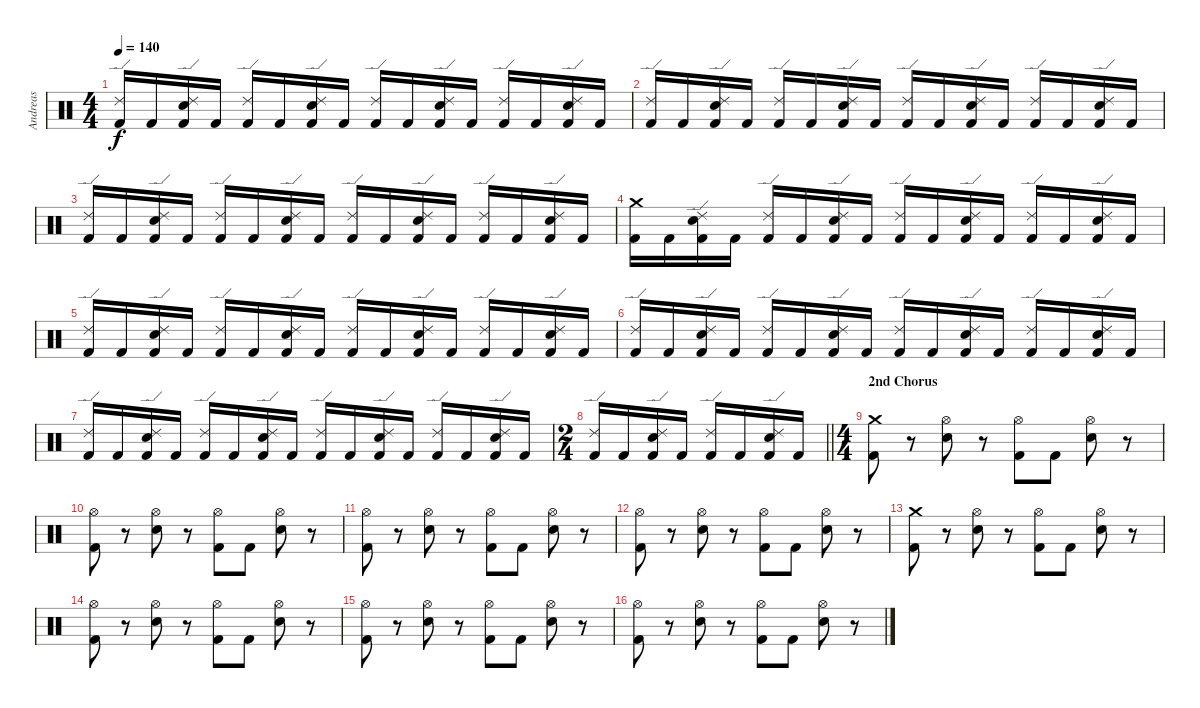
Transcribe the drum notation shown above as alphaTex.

\track ("Andreas" "Andreas") {instrument percussion}
\staff {score}
\articulation defaults
\ts (4 4)
\tempo 140
\clef neutral
\ks c
("Ride (edge) 2" "Kick (hit) 2").16{dy f} "Kick (hit) 2".16 ("Ride (edge) 2" "Electric Snare (hit)" "Kick (hit) 2").16 "Kick (hit) 2".16 ("Ride (edge) 2" "Kick (hit) 2").16 "Kick (hit) 2".16 ("Ride (edge) 2" "Electric Snare (hit)" "Kick (hit) 2").16 "Kick (hit) 2".16 ("Ride (edge) 2" "Kick (hit) 2").16 "Kick (hit) 2".16 ("Ride (edge) 2" "Electric Snare (hit)" "Kick (hit) 2").16 "Kick (hit) 2".16 ("Ride (edge) 2" "Kick (hit) 2").16 "Kick (hit) 2".16 ("Ride (edge) 2" "Electric Snare (hit)" "Kick (hit) 2").16 "Kick (hit) 2".16 |
("Ride (edge) 2" "Kick (hit) 2").16 "Kick (hit) 2".16 ("Ride (edge) 2" "Electric Snare (hit)" "Kick (hit) 2").16 "Kick (hit) 2".16 ("Ride (edge) 2" "Kick (hit) 2").16 "Kick (hit) 2".16 ("Ride (edge) 2" "Electric Snare (hit)" "Kick (hit) 2").16 "Kick (hit) 2".16 ("Ride (edge) 2" "Kick (hit) 2").16 "Kick (hit) 2".16 ("Ride (edge) 2" "Electric Snare (hit)" "Kick (hit) 2").16 "Kick (hit) 2".16 ("Ride (edge) 2" "Kick (hit) 2").16 "Kick (hit) 2".16 ("Ride (edge) 2" "Electric Snare (hit)" "Kick (hit) 2").16 "Kick (hit) 2".16 |
("Ride (edge) 2" "Kick (hit) 2").16 "Kick (hit) 2".16 ("Ride (edge) 2" "Electric Snare (hit)" "Kick (hit) 2").16 "Kick (hit) 2".16 ("Ride (edge) 2" "Kick (hit) 2").16 "Kick (hit) 2".16 ("Ride (edge) 2" "Electric Snare (hit)" "Kick (hit) 2").16 "Kick (hit) 2".16 ("Ride (edge) 2" "Kick (hit) 2").16 "Kick (hit) 2".16 ("Ride (edge) 2" "Electric Snare (hit)" "Kick (hit) 2").16 "Kick (hit) 2".16 ("Ride (edge) 2" "Kick (hit) 2").16 "Kick (hit) 2".16 ("Ride (edge) 2" "Electric Snare (hit)" "Kick (hit) 2").16 "Kick (hit) 2".16 |
("Crash medium (hit)" "Kick (hit) 2").16 "Kick (hit) 2".16 ("Ride (edge) 2" "Electric Snare (hit)" "Kick (hit) 2").16 "Kick (hit) 2".16 ("Ride (edge) 2" "Kick (hit) 2").16 "Kick (hit) 2".16 ("Ride (edge) 2" "Electric Snare (hit)" "Kick (hit) 2").16 "Kick (hit) 2".16 ("Ride (edge) 2" "Kick (hit) 2").16 "Kick (hit) 2".16 ("Ride (edge) 2" "Electric Snare (hit)" "Kick (hit) 2").16 "Kick (hit) 2".16 ("Ride (edge) 2" "Kick (hit) 2").16 "Kick (hit) 2".16 ("Ride (edge) 2" "Electric Snare (hit)" "Kick (hit) 2").16 "Kick (hit) 2".16 |
("Ride (edge) 2" "Kick (hit) 2").16 "Kick (hit) 2".16 ("Ride (edge) 2" "Electric Snare (hit)" "Kick (hit) 2").16 "Kick (hit) 2".16 ("Ride (edge) 2" "Kick (hit) 2").16 "Kick (hit) 2".16 ("Ride (edge) 2" "Electric Snare (hit)" "Kick (hit) 2").16 "Kick (hit) 2".16 ("Ride (edge) 2" "Kick (hit) 2").16 "Kick (hit) 2".16 ("Ride (edge) 2" "Electric Snare (hit)" "Kick (hit) 2").16 "Kick (hit) 2".16 ("Ride (edge) 2" "Kick (hit) 2").16 "Kick (hit) 2".16 ("Ride (edge) 2" "Electric Snare (hit)" "Kick (hit) 2").16 "Kick (hit) 2".16 |
("Ride (edge) 2" "Kick (hit) 2").16 "Kick (hit) 2".16 ("Ride (edge) 2" "Electric Snare (hit)" "Kick (hit) 2").16 "Kick (hit) 2".16 ("Ride (edge) 2" "Kick (hit) 2").16 "Kick (hit) 2".16 ("Ride (edge) 2" "Electric Snare (hit)" "Kick (hit) 2").16 "Kick (hit) 2".16 ("Ride (edge) 2" "Kick (hit) 2").16 "Kick (hit) 2".16 ("Ride (edge) 2" "Electric Snare (hit)" "Kick (hit) 2").16 "Kick (hit) 2".16 ("Ride (edge) 2" "Kick (hit) 2").16 "Kick (hit) 2".16 ("Ride (edge) 2" "Electric Snare (hit)" "Kick (hit) 2").16 "Kick (hit) 2".16 |
("Ride (edge) 2" "Kick (hit) 2").16 "Kick (hit) 2".16 ("Ride (edge) 2" "Electric Snare (hit)" "Kick (hit) 2").16 "Kick (hit) 2".16 ("Ride (edge) 2" "Kick (hit) 2").16 "Kick (hit) 2".16 ("Ride (edge) 2" "Electric Snare (hit)" "Kick (hit) 2").16 "Kick (hit) 2".16 ("Ride (edge) 2" "Kick (hit) 2").16 "Kick (hit) 2".16 ("Ride (edge) 2" "Electric Snare (hit)" "Kick (hit) 2").16 "Kick (hit) 2".16 ("Ride (edge) 2" "Kick (hit) 2").16 "Kick (hit) 2".16 ("Ride (edge) 2" "Electric Snare (hit)" "Kick (hit) 2").16 "Kick (hit) 2".16 |
\ts (2 4)
\barLineRight lightlight
("Ride (edge) 2" "Kick (hit) 2").16 "Kick (hit) 2".16 ("Ride (edge) 2" "Electric Snare (hit)" "Kick (hit) 2").16 "Kick (hit) 2".16 ("Ride (edge) 2" "Kick (hit) 2").16 "Kick (hit) 2".16 ("Ride (edge) 2" "Electric Snare (hit)" "Kick (hit) 2").16 "Kick (hit) 2".16 |
\ts (4 4)
\section ("" "2nd Chorus")
("Crash medium (hit)" "Kick (hit) 2").8 r.8 ("Hi-Hat (open)" "Electric Snare (hit)").8 r.8 ("Hi-Hat (open)" "Kick (hit) 2").8 "Kick (hit) 2".8 ("Hi-Hat (open)" "Electric Snare (hit)").8 r.8 |
("Hi-Hat (open)" "Kick (hit) 2").8 r.8 ("Hi-Hat (open)" "Electric Snare (hit)").8 r.8 ("Hi-Hat (open)" "Kick (hit) 2").8 "Kick (hit) 2".8 ("Hi-Hat (open)" "Electric Snare (hit)").8 r.8 |
("Hi-Hat (open)" "Kick (hit) 2").8 r.8 ("Hi-Hat (open)" "Electric Snare (hit)").8 r.8 ("Hi-Hat (open)" "Kick (hit) 2").8 "Kick (hit) 2".8 ("Hi-Hat (open)" "Electric Snare (hit)").8 r.8 |
("Hi-Hat (open)" "Kick (hit) 2").8 r.8 ("Hi-Hat (open)" "Electric Snare (hit)").8 r.8 ("Hi-Hat (open)" "Kick (hit) 2").8 "Kick (hit) 2".8 ("Hi-Hat (open)" "Electric Snare (hit)").8 r.8 |
("Crash medium (hit)" "Kick (hit) 2").8 r.8 ("Hi-Hat (open)" "Electric Snare (hit)").8 r.8 ("Hi-Hat (open)" "Kick (hit) 2").8 "Kick (hit) 2".8 ("Hi-Hat (open)" "Electric Snare (hit)").8 r.8 |
("Hi-Hat (open)" "Kick (hit) 2").8 r.8 ("Hi-Hat (open)" "Electric Snare (hit)").8 r.8 ("Hi-Hat (open)" "Kick (hit) 2").8 "Kick (hit) 2".8 ("Hi-Hat (open)" "Electric Snare (hit)").8 r.8 |
("Hi-Hat (open)" "Kick (hit) 2").8 r.8 ("Hi-Hat (open)" "Electric Snare (hit)").8 r.8 ("Hi-Hat (open)" "Kick (hit) 2").8 "Kick (hit) 2".8 ("Hi-Hat (open)" "Electric Snare (hit)").8 r.8 |
("Hi-Hat (open)" "Kick (hit) 2").8 r.8 ("Hi-Hat (open)" "Electric Snare (hit)").8 r.8 ("Hi-Hat (open)" "Kick (hit) 2").8 "Kick (hit) 2".8 ("Hi-Hat (open)" "Electric Snare (hit)").8 r.8
